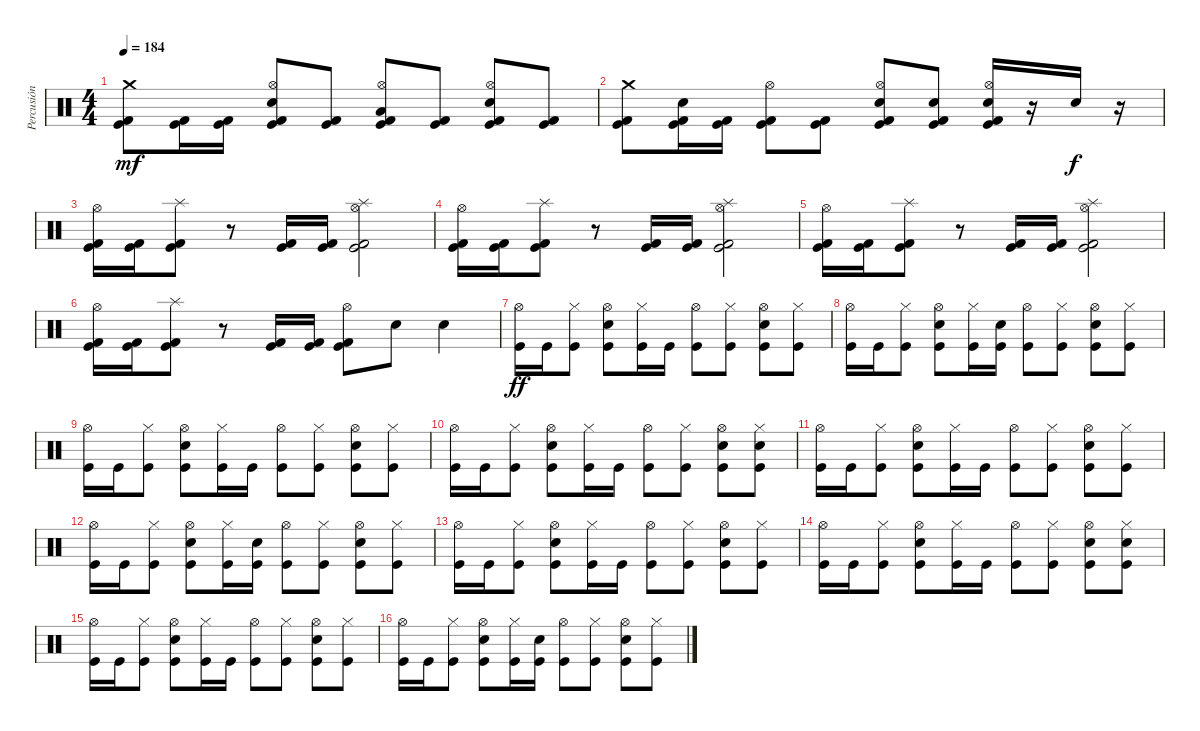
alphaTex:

\track ("Percusión" "Percusión") {instrument percussion}
\staff {score}
\articulation defaults
\ts (4 4)
\tempo 184
\clef neutral
\ks c
("Crash medium (hit)" "Kick (hit) 2" "Kick (hit)").8{dy mf} ("Kick (hit) 2" "Kick (hit)").16 ("Kick (hit) 2" "Kick (hit)").16 ("Hi-Hat (open)" "Electric Snare (hit)" "Kick (hit) 2" "Kick (hit)").8 ("Kick (hit) 2" "Kick (hit)").8 ("Hi-Hat (open)" "Low Floor Tom (hit)" "Kick (hit) 2" "Kick (hit)").8 ("Kick (hit) 2" "Kick (hit)").8 ("Hi-Hat (open)" "Electric Snare (hit)" "Kick (hit) 2" "Kick (hit)").8 ("Kick (hit) 2" "Kick (hit)").8 |
("Crash medium (hit)" "Kick (hit) 2" "Kick (hit)").8 ("Electric Snare (hit)" "Kick (hit) 2" "Kick (hit)").16 ("Kick (hit) 2" "Kick (hit)").16 ("Hi-Hat (open)" "Kick (hit) 2" "Kick (hit)").8 ("Kick (hit) 2" "Kick (hit)").8 ("Hi-Hat (open)" "Electric Snare (hit)" "Kick (hit) 2" "Kick (hit)").8 ("Electric Snare (hit)" "Kick (hit) 2" "Kick (hit)").8 ("Hi-Hat (open)" "Electric Snare (hit)" "Kick (hit) 2" "Kick (hit)").16 r.16 "Electric Snare (hit)".16{dy f} r.16 |
("Hi-Hat (open)" "Kick (hit) 2" "Kick (hit)").16 ("Kick (hit) 2" "Kick (hit)").16 ("Splash (hit)" "Kick (hit) 2" "Kick (hit)").8 r.8 ("Kick (hit)" "Kick (hit) 2").16 ("Kick (hit) 2" "Kick (hit)").16 ("Splash (hit)" "Hi-Hat (open)" "Kick (hit)" "Kick (hit) 2").2 |
("Hi-Hat (open)" "Kick (hit) 2" "Kick (hit)").16 ("Kick (hit) 2" "Kick (hit)").16 ("Splash (hit)" "Kick (hit) 2" "Kick (hit)").8 r.8 ("Kick (hit)" "Kick (hit) 2").16 ("Kick (hit) 2" "Kick (hit)").16 ("Splash (hit)" "Hi-Hat (open)" "Kick (hit)" "Kick (hit) 2").2 |
("Hi-Hat (open)" "Kick (hit) 2" "Kick (hit)").16 ("Kick (hit) 2" "Kick (hit)").16 ("Splash (hit)" "Kick (hit) 2" "Kick (hit)").8 r.8 ("Kick (hit)" "Kick (hit) 2").16 ("Kick (hit) 2" "Kick (hit)").16 ("Splash (hit)" "Hi-Hat (open)" "Kick (hit)" "Kick (hit) 2").2 |
("Hi-Hat (open)" "Kick (hit) 2" "Kick (hit)").16 ("Kick (hit) 2" "Kick (hit)").16 ("Splash (hit)" "Kick (hit) 2" "Kick (hit)").8 r.8 ("Kick (hit)" "Kick (hit) 2").16 ("Kick (hit) 2" "Kick (hit)").16 ("Hi-Hat (open)" "Kick (hit)" "Kick (hit) 2").8 "Electric Snare (hit)".8 "Electric Snare (hit)".4 |
("Hi-Hat (open)" "Kick (hit)").16{dy ff} "Kick (hit)".16 ("Hi-Hat (closed)" "Kick (hit)").8 ("Hi-Hat (open)" "Electric Snare (hit)" "Kick (hit)").8 ("Hi-Hat (closed)" "Kick (hit)").16 "Kick (hit)".16 ("Hi-Hat (open)" "Kick (hit)").8 ("Hi-Hat (closed)" "Kick (hit)").8 ("Hi-Hat (open)" "Electric Snare (hit)" "Kick (hit)").8 ("Hi-Hat (closed)" "Kick (hit)").8 |
("Hi-Hat (open)" "Kick (hit)").16 "Kick (hit)".16 ("Hi-Hat (closed)" "Kick (hit)").8 ("Hi-Hat (open)" "Electric Snare (hit)" "Kick (hit)").8 ("Hi-Hat (closed)" "Kick (hit)").16 ("Electric Snare (hit)" "Kick (hit)").16 ("Hi-Hat (open)" "Kick (hit)").8 ("Hi-Hat (closed)" "Kick (hit)").8 ("Hi-Hat (open)" "Electric Snare (hit)" "Kick (hit)").8 ("Hi-Hat (closed)" "Kick (hit)").8 |
("Hi-Hat (open)" "Kick (hit)").16 "Kick (hit)".16 ("Hi-Hat (closed)" "Kick (hit)").8 ("Hi-Hat (open)" "Electric Snare (hit)" "Kick (hit)").8 ("Hi-Hat (closed)" "Kick (hit)").16 "Kick (hit)".16 ("Hi-Hat (open)" "Kick (hit)").8 ("Hi-Hat (closed)" "Kick (hit)").8 ("Hi-Hat (open)" "Electric Snare (hit)" "Kick (hit)").8 ("Hi-Hat (closed)" "Kick (hit)").8 |
("Hi-Hat (open)" "Kick (hit)").16 "Kick (hit)".16 ("Hi-Hat (closed)" "Kick (hit)").8 ("Hi-Hat (open)" "Electric Snare (hit)" "Kick (hit)").8 ("Hi-Hat (closed)" "Kick (hit)").16 "Kick (hit)".16 ("Hi-Hat (open)" "Kick (hit)").8 ("Hi-Hat (closed)" "Kick (hit)").8 ("Hi-Hat (open)" "Electric Snare (hit)" "Kick (hit)").8 ("Hi-Hat (closed)" "Electric Snare (hit)" "Kick (hit)").8 |
("Hi-Hat (open)" "Kick (hit)").16 "Kick (hit)".16 ("Hi-Hat (closed)" "Kick (hit)").8 ("Hi-Hat (open)" "Electric Snare (hit)" "Kick (hit)").8 ("Hi-Hat (closed)" "Kick (hit)").16 "Kick (hit)".16 ("Hi-Hat (open)" "Kick (hit)").8 ("Hi-Hat (closed)" "Kick (hit)").8 ("Hi-Hat (open)" "Electric Snare (hit)" "Kick (hit)").8 ("Hi-Hat (closed)" "Kick (hit)").8 |
("Hi-Hat (open)" "Kick (hit)").16 "Kick (hit)".16 ("Hi-Hat (closed)" "Kick (hit)").8 ("Hi-Hat (open)" "Electric Snare (hit)" "Kick (hit)").8 ("Hi-Hat (closed)" "Kick (hit)").16 ("Electric Snare (hit)" "Kick (hit)").16 ("Hi-Hat (open)" "Kick (hit)").8 ("Hi-Hat (closed)" "Kick (hit)").8 ("Hi-Hat (open)" "Electric Snare (hit)" "Kick (hit)").8 ("Hi-Hat (closed)" "Kick (hit)").8 |
("Hi-Hat (open)" "Kick (hit)").16 "Kick (hit)".16 ("Hi-Hat (closed)" "Kick (hit)").8 ("Hi-Hat (open)" "Electric Snare (hit)" "Kick (hit)").8 ("Hi-Hat (closed)" "Kick (hit)").16 "Kick (hit)".16 ("Hi-Hat (open)" "Kick (hit)").8 ("Hi-Hat (closed)" "Kick (hit)").8 ("Hi-Hat (open)" "Electric Snare (hit)" "Kick (hit)").8 ("Hi-Hat (closed)" "Kick (hit)").8 |
("Hi-Hat (open)" "Kick (hit)").16 "Kick (hit)".16 ("Hi-Hat (closed)" "Kick (hit)").8 ("Hi-Hat (open)" "Electric Snare (hit)" "Kick (hit)").8 ("Hi-Hat (closed)" "Kick (hit)").16 "Kick (hit)".16 ("Hi-Hat (open)" "Kick (hit)").8 ("Hi-Hat (closed)" "Kick (hit)").8 ("Hi-Hat (open)" "Electric Snare (hit)" "Kick (hit)").8 ("Hi-Hat (closed)" "Electric Snare (hit)" "Kick (hit)").8 |
("Hi-Hat (open)" "Kick (hit)").16 "Kick (hit)".16 ("Hi-Hat (closed)" "Kick (hit)").8 ("Hi-Hat (open)" "Electric Snare (hit)" "Kick (hit)").8 ("Hi-Hat (closed)" "Kick (hit)").16 "Kick (hit)".16 ("Hi-Hat (open)" "Kick (hit)").8 ("Hi-Hat (closed)" "Kick (hit)").8 ("Hi-Hat (open)" "Electric Snare (hit)" "Kick (hit)").8 ("Hi-Hat (closed)" "Kick (hit)").8 |
("Hi-Hat (open)" "Kick (hit)").16 "Kick (hit)".16 ("Hi-Hat (closed)" "Kick (hit)").8 ("Hi-Hat (open)" "Electric Snare (hit)" "Kick (hit)").8 ("Hi-Hat (closed)" "Kick (hit)").16 ("Electric Snare (hit)" "Kick (hit)").16 ("Hi-Hat (open)" "Kick (hit)").8 ("Hi-Hat (closed)" "Kick (hit)").8 ("Hi-Hat (open)" "Electric Snare (hit)" "Kick (hit)").8 ("Hi-Hat (closed)" "Kick (hit)").8
